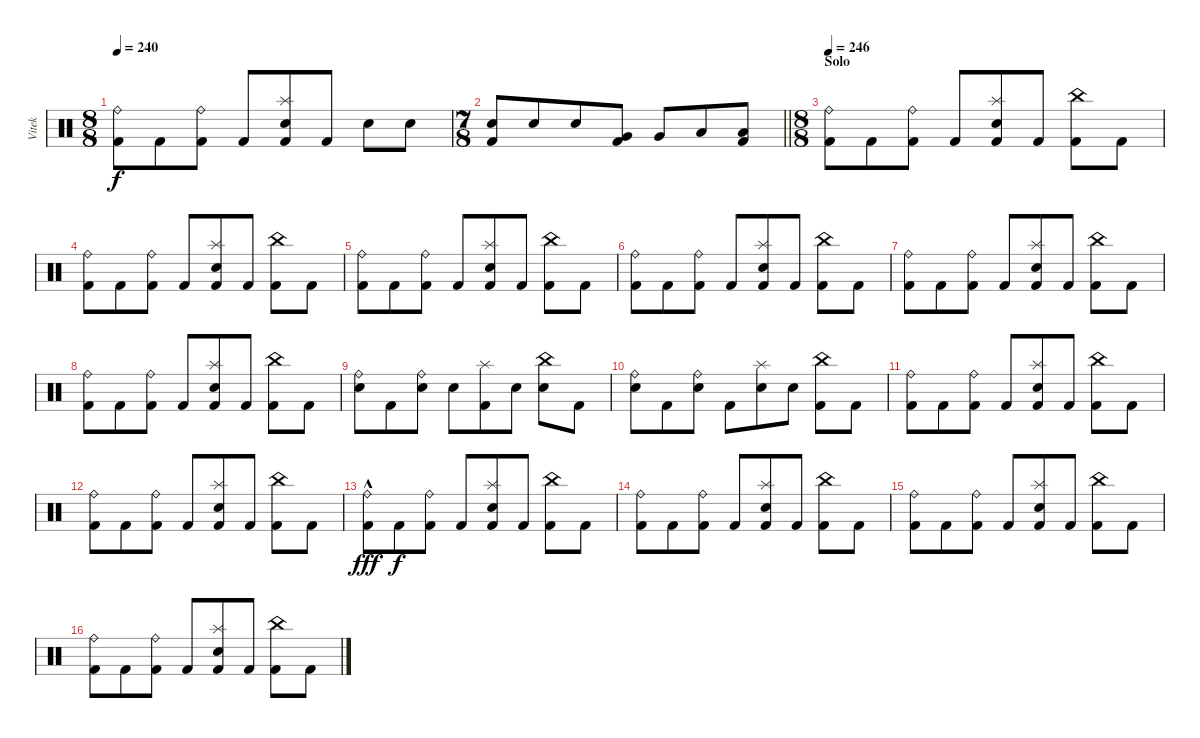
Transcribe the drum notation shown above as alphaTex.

\track ("Vitek" "Vitek") {instrument percussion}
\staff {score}
\articulation defaults
\ts (8 8)
\tempo 240
\clef neutral
\ks c
("Ride (bell)" "Kick (hit) 2").8{dy f} "Kick (hit) 2".8 ("Ride (bell)" "Kick (hit) 2").8 "Kick (hit) 2".8 ("Splash (hit)" "Electric Snare (hit)" "Kick (hit) 2").8 "Kick (hit) 2".8 "Electric Snare (hit)".8 "Electric Snare (hit)".8 |
\ts (7 8)
\barLineRight lightlight
("Electric Snare (hit)" "Kick (hit) 2").8 "Electric Snare (hit)".8 "Electric Snare (hit)".8 ("Very Low Tom (hit)" "Kick (hit) 2").8 "Very Low Tom (hit)".8 "Low Floor Tom (hit)".8 ("Low Floor Tom (hit)" "Kick (hit) 2").8 |
\ts (8 8)
\section ("" "Solo")
\tempo 246
("Ride (bell)" "Kick (hit) 2").8 "Kick (hit) 2".8 ("Ride (bell)" "Kick (hit) 2").8 "Kick (hit) 2".8 ("Splash (hit)" "Electric Snare (hit)" "Kick (hit) 2").8 "Kick (hit) 2".8 ("China (hit)" "Kick (hit) 2").8 "Kick (hit) 2".8 |
("Ride (bell)" "Kick (hit) 2").8 "Kick (hit) 2".8 ("Ride (bell)" "Kick (hit) 2").8 "Kick (hit) 2".8 ("Splash (hit)" "Electric Snare (hit)" "Kick (hit) 2").8 "Kick (hit) 2".8 ("China (hit)" "Kick (hit) 2").8 "Kick (hit) 2".8 |
("Ride (bell)" "Kick (hit) 2").8 "Kick (hit) 2".8 ("Ride (bell)" "Kick (hit) 2").8 "Kick (hit) 2".8 ("Splash (hit)" "Electric Snare (hit)" "Kick (hit) 2").8 "Kick (hit) 2".8 ("China (hit)" "Kick (hit) 2").8 "Kick (hit) 2".8 |
("Ride (bell)" "Kick (hit) 2").8 "Kick (hit) 2".8 ("Ride (bell)" "Kick (hit) 2").8 "Kick (hit) 2".8 ("Splash (hit)" "Electric Snare (hit)" "Kick (hit) 2").8 "Kick (hit) 2".8 ("China (hit)" "Kick (hit) 2").8 "Kick (hit) 2".8 |
("Ride (bell)" "Kick (hit) 2").8 "Kick (hit) 2".8 ("Ride (bell)" "Kick (hit) 2").8 "Kick (hit) 2".8 ("Splash (hit)" "Electric Snare (hit)" "Kick (hit) 2").8 "Kick (hit) 2".8 ("China (hit)" "Kick (hit) 2").8 "Kick (hit) 2".8 |
("Ride (bell)" "Kick (hit) 2").8 "Kick (hit) 2".8 ("Ride (bell)" "Kick (hit) 2").8 "Kick (hit) 2".8 ("Splash (hit)" "Electric Snare (hit)" "Kick (hit) 2").8 "Kick (hit) 2".8 ("China (hit)" "Kick (hit) 2").8 "Kick (hit) 2".8 |
("Ride (bell)" "Electric Snare (hit)").8 "Kick (hit) 2".8 ("Ride (bell)" "Electric Snare (hit)").8 "Electric Snare (hit)".8 ("Splash (hit)" "Kick (hit) 2").8 "Electric Snare (hit)".8 ("China (hit)" "Electric Snare (hit)").8 "Kick (hit) 2".8 |
("Ride (bell)" "Electric Snare (hit)").8 "Kick (hit) 2".8 ("Ride (bell)" "Electric Snare (hit)").8 "Kick (hit) 2".8 ("Splash (hit)" "Electric Snare (hit)").8 "Electric Snare (hit)".8 ("China (hit)" "Kick (hit) 2").8 "Kick (hit) 2".8 |
("Ride (bell)" "Kick (hit) 2").8 "Kick (hit) 2".8 ("Ride (bell)" "Kick (hit) 2").8 "Kick (hit) 2".8 ("Splash (hit)" "Electric Snare (hit)" "Kick (hit) 2").8 "Kick (hit) 2".8 ("China (hit)" "Kick (hit) 2").8 "Kick (hit) 2".8 |
("Ride (bell)" "Kick (hit) 2").8 "Kick (hit) 2".8 ("Ride (bell)" "Kick (hit) 2").8 "Kick (hit) 2".8 ("Splash (hit)" "Electric Snare (hit)" "Kick (hit) 2").8 "Kick (hit) 2".8 ("China (hit)" "Kick (hit) 2").8 "Kick (hit) 2".8 |
("Ride (bell)"{hac} "Kick (hit) 2").8{dy fff} "Kick (hit) 2".8{dy f} ("Ride (bell)" "Kick (hit) 2").8 "Kick (hit) 2".8 ("Splash (hit)" "Electric Snare (hit)" "Kick (hit) 2").8 "Kick (hit) 2".8 ("China (hit)" "Kick (hit) 2").8 "Kick (hit) 2".8 |
("Ride (bell)" "Kick (hit) 2").8 "Kick (hit) 2".8 ("Ride (bell)" "Kick (hit) 2").8 "Kick (hit) 2".8 ("Splash (hit)" "Electric Snare (hit)" "Kick (hit) 2").8 "Kick (hit) 2".8 ("China (hit)" "Kick (hit) 2").8 "Kick (hit) 2".8 |
("Ride (bell)" "Kick (hit) 2").8 "Kick (hit) 2".8 ("Ride (bell)" "Kick (hit) 2").8 "Kick (hit) 2".8 ("Splash (hit)" "Electric Snare (hit)" "Kick (hit) 2").8 "Kick (hit) 2".8 ("China (hit)" "Kick (hit) 2").8 "Kick (hit) 2".8 |
("Ride (bell)" "Kick (hit) 2").8 "Kick (hit) 2".8 ("Ride (bell)" "Kick (hit) 2").8 "Kick (hit) 2".8 ("Splash (hit)" "Electric Snare (hit)" "Kick (hit) 2").8 "Kick (hit) 2".8 ("China (hit)" "Kick (hit) 2").8 "Kick (hit) 2".8
